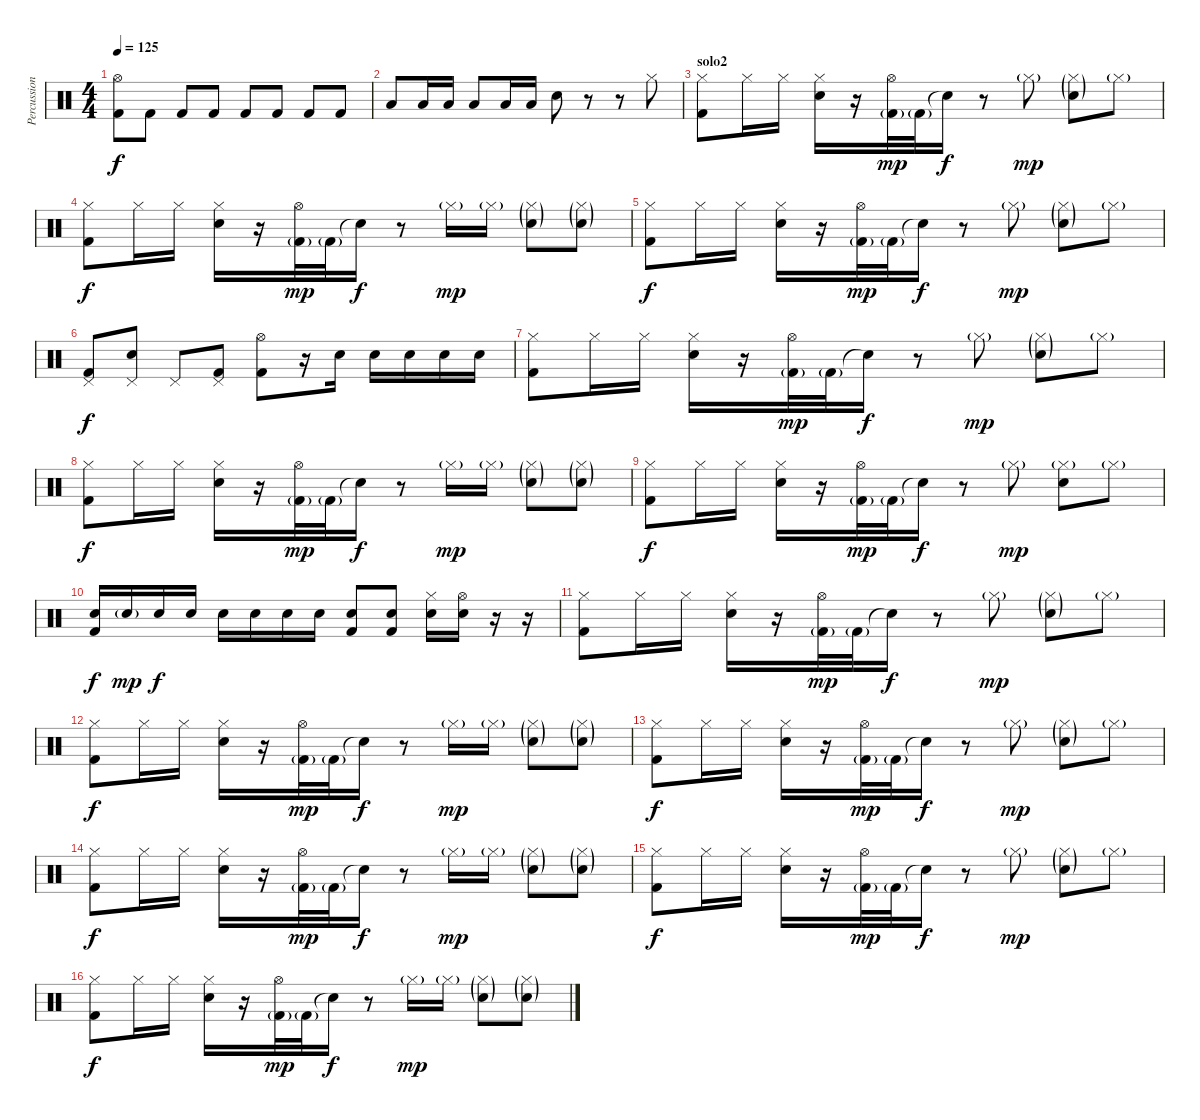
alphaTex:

\track ("Percussion" "Percussion") {instrument percussion}
\staff {score}
\articulation defaults
\ts (4 4)
\tempo 125
\clef neutral
\ks c
("Hi-Hat (open)" "Kick (hit) 2").8{dy f} "Kick (hit) 2".8 "Kick (hit) 2".8 "Kick (hit) 2".8 "Kick (hit) 2".8 "Kick (hit) 2".8 "Kick (hit) 2".8 "Kick (hit) 2".8 |
"Low Floor Tom (hit)".8 "Low Tom (hit)".16 "Low Tom (hit)".16 "Low Floor Tom (hit)".8 "Low Tom (hit)".16 "Low Tom (hit)".16 "Snare (hit) 2".8 r.8 r.8 "Hi-Hat (closed)".8 |
\section ("" "solo2")
("Hi-Hat (closed)" "Kick (hit) 2").8 "Hi-Hat (closed)".16 "Hi-Hat (closed)".16 ("Hi-Hat (closed)" "Snare (hit) 2").16 r.16 ("Hi-Hat (open)" "Kick (hit) 2"{g}).32{dy mp} "Kick (hit) 2"{g}.32 "Snare (hit)"{t}.16{dy f} r.8 "Hi-Hat (closed)"{g}.8{dy mp} ("Hi-Hat (closed)"{g} "Snare (hit) 2"{g}).8 "Hi-Hat (closed)"{g}.8 |
("Hi-Hat (closed)" "Kick (hit) 2").8{dy f} "Hi-Hat (closed)".16 "Hi-Hat (closed)".16 ("Hi-Hat (closed)" "Snare (hit) 2").16 r.16 ("Hi-Hat (open)" "Kick (hit) 2"{g}).32{dy mp} "Kick (hit) 2"{g}.32 "Snare (hit)"{t}.16{dy f} r.8 "Hi-Hat (closed)"{g}.16{dy mp} "Hi-Hat (closed)"{g}.16 ("Hi-Hat (closed)"{g} "Snare (hit) 2"{g}).8 ("Hi-Hat (closed)"{g} "Snare (hit) 2"{g}).8 |
("Hi-Hat (closed)" "Kick (hit) 2").8{dy f} "Hi-Hat (closed)".16 "Hi-Hat (closed)".16 ("Hi-Hat (closed)" "Snare (hit) 2").16 r.16 ("Hi-Hat (open)" "Kick (hit) 2"{g}).32{dy mp} "Kick (hit) 2"{g}.32 "Snare (hit)"{t}.16{dy f} r.8 "Hi-Hat (closed)"{g}.8{dy mp} ("Hi-Hat (closed)"{g} "Snare (hit) 2"{g}).8 "Hi-Hat (closed)"{g}.8 |
("Pedal Hi-Hat (hit)" "Kick (hit) 2").8{dy f} ("Pedal Hi-Hat (hit)" "Snare (hit) 2").8 "Pedal Hi-Hat (hit)".8 ("Pedal Hi-Hat (hit)" "Kick (hit) 2").8 ("Hi-Hat (open)" "Kick (hit) 2").8 r.16 "Snare (hit) 2".16 "Snare (hit) 2".16 "Snare (hit) 2".16 "Snare (hit) 2".16 "Snare (hit) 2".16 |
("Hi-Hat (closed)" "Kick (hit) 2").8 "Hi-Hat (closed)".16 "Hi-Hat (closed)".16 ("Hi-Hat (closed)" "Snare (hit) 2").16 r.16 ("Hi-Hat (open)" "Kick (hit) 2"{g}).32{dy mp} "Kick (hit) 2"{g}.32 "Snare (hit)"{t}.16{dy f} r.8 "Hi-Hat (closed)"{g}.8{dy mp} ("Hi-Hat (closed)"{g} "Snare (hit) 2"{g}).8 "Hi-Hat (closed)"{g}.8 |
("Hi-Hat (closed)" "Kick (hit) 2").8{dy f} "Hi-Hat (closed)".16 "Hi-Hat (closed)".16 ("Hi-Hat (closed)" "Snare (hit) 2").16 r.16 ("Hi-Hat (open)" "Kick (hit) 2"{g}).32{dy mp} "Kick (hit) 2"{g}.32 "Snare (hit)"{t}.16{dy f} r.8 "Hi-Hat (closed)"{g}.16{dy mp} "Hi-Hat (closed)"{g}.16 ("Hi-Hat (closed)"{g} "Snare (hit) 2"{g}).8 ("Hi-Hat (closed)"{g} "Snare (hit) 2"{g}).8 |
("Hi-Hat (closed)" "Kick (hit) 2").8{dy f} "Hi-Hat (closed)".16 "Hi-Hat (closed)".16 ("Hi-Hat (closed)" "Snare (hit) 2").16 r.16 ("Hi-Hat (open)" "Kick (hit) 2"{g}).32{dy mp} "Kick (hit) 2"{g}.32 "Snare (hit)"{t}.16{dy f} r.8 "Hi-Hat (closed)"{g}.8{dy mp} ("Hi-Hat (closed)"{g} "Snare (hit) 2").8 "Hi-Hat (closed)"{g}.8 |
("Snare (hit) 2" "Kick (hit) 2").16{dy f} "Snare (hit) 2"{g}.16{dy mp} "Snare (hit) 2".16{dy f} "Snare (hit) 2".16 "Snare (hit) 2".16 "Snare (hit) 2".16 "Snare (hit) 2".16 "Snare (hit) 2".16 ("Snare (hit) 2" "Kick (hit) 2").8 ("Snare (hit) 2" "Kick (hit) 2").8 ("Hi-Hat (closed)" "Snare (hit) 2").16 ("Hi-Hat (open)" "Snare (hit) 2").16 r.16 r.16 |
("Hi-Hat (closed)" "Kick (hit) 2").8 "Hi-Hat (closed)".16 "Hi-Hat (closed)".16 ("Hi-Hat (closed)" "Snare (hit) 2").16 r.16 ("Hi-Hat (open)" "Kick (hit) 2"{g}).32{dy mp} "Kick (hit) 2"{g}.32 "Snare (hit)"{t}.16{dy f} r.8 "Hi-Hat (closed)"{g}.8{dy mp} ("Hi-Hat (closed)"{g} "Snare (hit) 2"{g}).8 "Hi-Hat (closed)"{g}.8 |
("Hi-Hat (closed)" "Kick (hit) 2").8{dy f} "Hi-Hat (closed)".16 "Hi-Hat (closed)".16 ("Hi-Hat (closed)" "Snare (hit) 2").16 r.16 ("Hi-Hat (open)" "Kick (hit) 2"{g}).32{dy mp} "Kick (hit) 2"{g}.32 "Snare (hit)"{t}.16{dy f} r.8 "Hi-Hat (closed)"{g}.16{dy mp} "Hi-Hat (closed)"{g}.16 ("Hi-Hat (closed)"{g} "Snare (hit) 2"{g}).8 ("Hi-Hat (closed)"{g} "Snare (hit) 2"{g}).8 |
("Hi-Hat (closed)" "Kick (hit) 2").8{dy f} "Hi-Hat (closed)".16 "Hi-Hat (closed)".16 ("Hi-Hat (closed)" "Snare (hit) 2").16 r.16 ("Hi-Hat (open)" "Kick (hit) 2"{g}).32{dy mp} "Kick (hit) 2"{g}.32 "Snare (hit)"{t}.16{dy f} r.8 "Hi-Hat (closed)"{g}.8{dy mp} ("Hi-Hat (closed)"{g} "Snare (hit) 2"{g}).8 "Hi-Hat (closed)"{g}.8 |
("Hi-Hat (closed)" "Kick (hit) 2").8{dy f} "Hi-Hat (closed)".16 "Hi-Hat (closed)".16 ("Hi-Hat (closed)" "Snare (hit) 2").16 r.16 ("Hi-Hat (open)" "Kick (hit) 2"{g}).32{dy mp} "Kick (hit) 2"{g}.32 "Snare (hit)"{t}.16{dy f} r.8 "Hi-Hat (closed)"{g}.16{dy mp} "Hi-Hat (closed)"{g}.16 ("Hi-Hat (closed)"{g} "Snare (hit) 2"{g}).8 ("Hi-Hat (closed)"{g} "Snare (hit) 2"{g}).8 |
("Hi-Hat (closed)" "Kick (hit) 2").8{dy f} "Hi-Hat (closed)".16 "Hi-Hat (closed)".16 ("Hi-Hat (closed)" "Snare (hit) 2").16 r.16 ("Hi-Hat (open)" "Kick (hit) 2"{g}).32{dy mp} "Kick (hit) 2"{g}.32 "Snare (hit)"{t}.16{dy f} r.8 "Hi-Hat (closed)"{g}.8{dy mp} ("Hi-Hat (closed)"{g} "Snare (hit) 2"{g}).8 "Hi-Hat (closed)"{g}.8 |
("Hi-Hat (closed)" "Kick (hit) 2").8{dy f} "Hi-Hat (closed)".16 "Hi-Hat (closed)".16 ("Hi-Hat (closed)" "Snare (hit) 2").16 r.16 ("Hi-Hat (open)" "Kick (hit) 2"{g}).32{dy mp} "Kick (hit) 2"{g}.32 "Snare (hit)"{t}.16{dy f} r.8 "Hi-Hat (closed)"{g}.16{dy mp} "Hi-Hat (closed)"{g}.16 ("Hi-Hat (closed)"{g} "Snare (hit) 2"{g}).8 ("Hi-Hat (closed)"{g} "Snare (hit) 2"{g}).8
